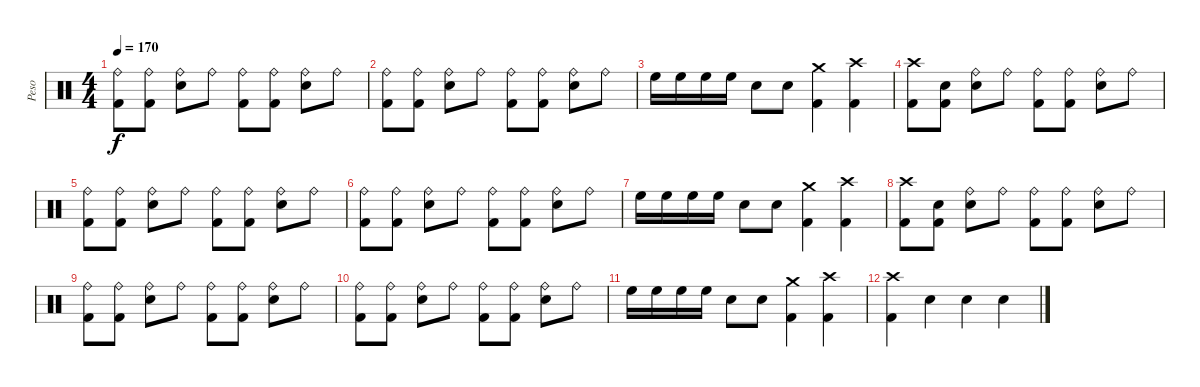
\track ("Peso" "Peso") {instrument percussion}
\staff {score}
\articulation defaults
\ts (4 4)
\tempo 170
\clef neutral
\ks c
("Ride (bell)" "Kick (hit) 2").8{dy f} ("Ride (bell)"{x} "Kick (hit) 2").8 ("Ride (bell)" "Snare (hit) 2").8 "Ride (bell)"{x}.8 ("Ride (bell)" "Kick (hit) 2").8 ("Ride (bell)"{x} "Kick (hit) 2").8 ("Ride (bell)" "Snare (hit) 2").8 "Ride (bell)"{x}.8 |
("Ride (bell)" "Kick (hit) 2").8 ("Ride (bell)"{x} "Kick (hit) 2").8 ("Ride (bell)" "Snare (hit) 2").8 "Ride (bell)"{x}.8 ("Ride (bell)" "Kick (hit) 2").8 ("Ride (bell)"{x} "Kick (hit) 2").8 ("Ride (bell)" "Snare (hit) 2").8 "Ride (bell)"{x}.8 |
"High Floor Tom (hit)"{x}.16 "High Floor Tom (hit)".16 "High Floor Tom (hit)".16 "High Floor Tom (hit)"{x}.16 "Snare (hit) 2".8 "Snare (hit) 2".8 ("Crash medium (hit)" "Kick (hit) 2").4 ("Crash high (hit)" "Kick (hit) 2").4 |
("Crash high (hit)" "Kick (hit) 2").8 ("Snare (hit)"{x} "Kick (hit) 2").8 ("Ride (bell)" "Snare (hit) 2").8 "Ride (bell)"{x}.8 ("Ride (bell)" "Kick (hit) 2").8 ("Ride (bell)"{x} "Kick (hit) 2").8 ("Ride (bell)" "Snare (hit) 2").8 "Ride (bell)"{x}.8 |
("Ride (bell)" "Kick (hit) 2").8 ("Ride (bell)"{x} "Kick (hit) 2").8 ("Ride (bell)" "Snare (hit) 2").8 "Ride (bell)"{x}.8 ("Ride (bell)" "Kick (hit) 2").8 ("Ride (bell)"{x} "Kick (hit) 2").8 ("Ride (bell)" "Snare (hit) 2").8 "Ride (bell)"{x}.8 |
("Ride (bell)" "Kick (hit) 2").8 ("Ride (bell)"{x} "Kick (hit) 2").8 ("Ride (bell)" "Snare (hit) 2").8 "Ride (bell)"{x}.8 ("Ride (bell)" "Kick (hit) 2").8 ("Ride (bell)"{x} "Kick (hit) 2").8 ("Ride (bell)" "Snare (hit) 2").8 "Ride (bell)"{x}.8 |
"High Floor Tom (hit)"{x}.16 "High Floor Tom (hit)".16 "High Floor Tom (hit)".16 "High Floor Tom (hit)"{x}.16 "Snare (hit) 2".8 "Snare (hit) 2".8 ("Crash medium (hit)" "Kick (hit) 2").4 ("Crash high (hit)" "Kick (hit) 2").4 |
("Crash high (hit)" "Kick (hit) 2").8 ("Snare (hit)"{x} "Kick (hit) 2").8 ("Ride (bell)" "Snare (hit) 2").8 "Ride (bell)"{x}.8 ("Ride (bell)" "Kick (hit) 2").8 ("Ride (bell)"{x} "Kick (hit) 2").8 ("Ride (bell)" "Snare (hit) 2").8 "Ride (bell)"{x}.8 |
("Ride (bell)" "Kick (hit) 2").8 ("Ride (bell)"{x} "Kick (hit) 2").8 ("Ride (bell)" "Snare (hit) 2").8 "Ride (bell)"{x}.8 ("Ride (bell)" "Kick (hit) 2").8 ("Ride (bell)"{x} "Kick (hit) 2").8 ("Ride (bell)" "Snare (hit) 2").8 "Ride (bell)"{x}.8 |
("Ride (bell)" "Kick (hit) 2").8 ("Ride (bell)"{x} "Kick (hit) 2").8 ("Ride (bell)" "Snare (hit) 2").8 "Ride (bell)"{x}.8 ("Ride (bell)" "Kick (hit) 2").8 ("Ride (bell)"{x} "Kick (hit) 2").8 ("Ride (bell)" "Snare (hit) 2").8 "Ride (bell)"{x}.8 |
"High Floor Tom (hit)"{x}.16 "High Floor Tom (hit)".16 "High Floor Tom (hit)".16 "High Floor Tom (hit)"{x}.16 "Snare (hit) 2".8 "Snare (hit) 2".8 ("Crash medium (hit)" "Kick (hit) 2").4 ("Crash high (hit)" "Kick (hit) 2").4 |
("Crash high (hit)" "Kick (hit) 2").4 "Snare (hit)"{x}.4 "Snare (hit)"{x}.4 "Snare (hit)"{x}.4
